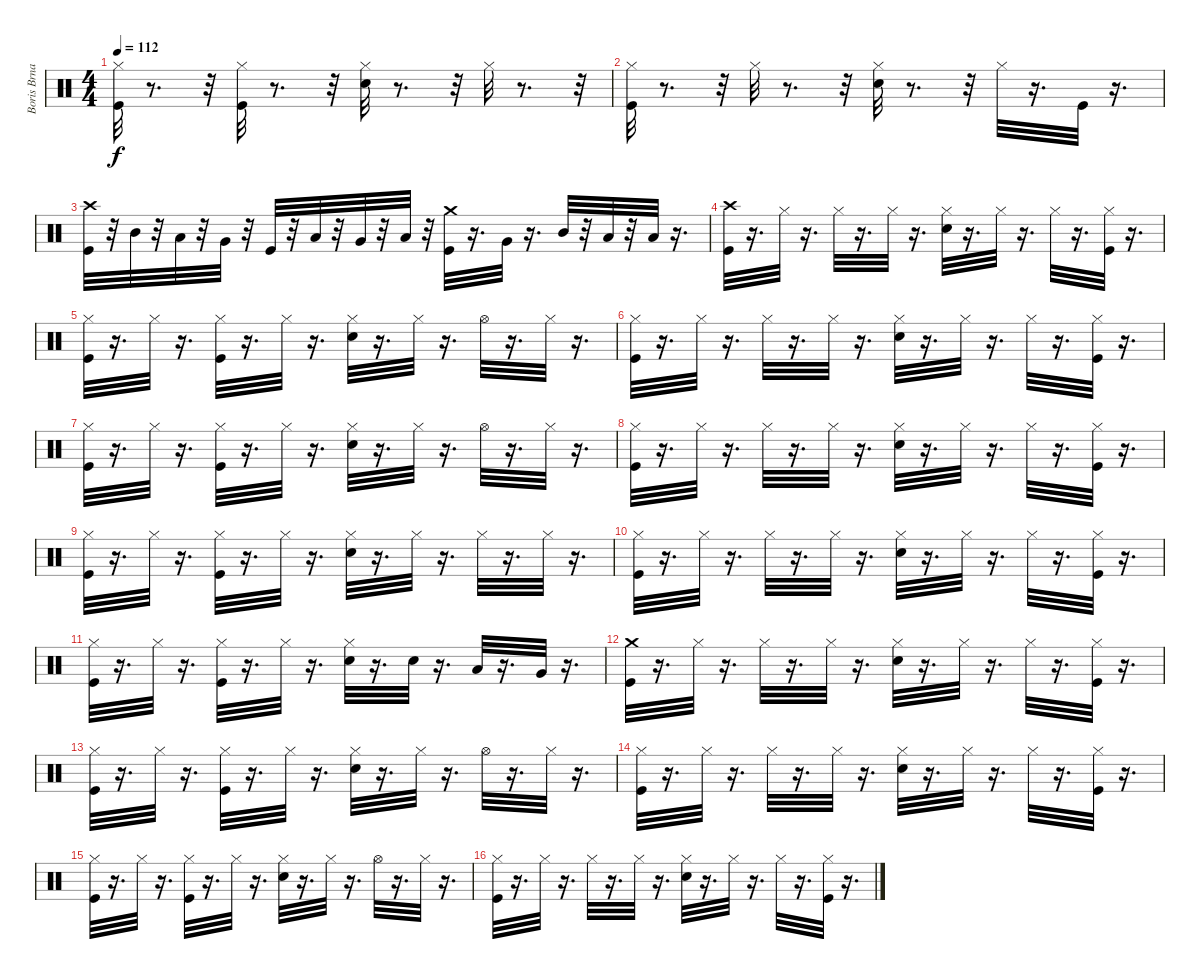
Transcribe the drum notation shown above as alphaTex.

\track ("Boris Brna (Drums)" "Boris Brna") {instrument percussion}
\staff {score}
\articulation defaults
\ts (4 4)
\tempo 112
\clef neutral
\ks c
("Kick (hit)" "Hi-Hat (closed)").32{dy f} r.8{d} r.32 ("Kick (hit)" "Hi-Hat (closed)").32 r.8{d} r.32 ("Snare (hit) 2" "Hi-Hat (closed)").32 r.8{d} r.32 "Hi-Hat (closed)".32 r.8{d} r.32 |
("Kick (hit)" "Hi-Hat (closed)").32 r.8{d} r.32 "Hi-Hat (closed)".32 r.8{d} r.32 ("Hi-Hat (closed)" "Snare (hit) 2").32 r.8{d} r.32 "Hi-Hat (closed)".32 r.16{d} "Kick (hit)".32 r.16{d} |
("Kick (hit)" "Crash high (hit)").32 r.32 "Mid Tom (hit)".32 r.32 "Low Tom (hit)".32 r.32 "Very Low Tom (hit)".32 r.32 "Kick (hit)".32 r.32 "Low Tom (hit)".32 r.32 "Very Low Tom (hit)".32 r.32 "Low Floor Tom (hit)".32 r.32 ("Kick (hit)" "Crash medium (hit)").32 r.16{d} "Very Low Tom (hit)".32 r.16{d} "Mid Tom (hit)".32 r.32 "Low Tom (hit)".32 r.32 "Low Floor Tom (hit)".32 r.16{d} |
("Kick (hit)" "Crash high (hit)").32 r.16{d} "Hi-Hat (closed)".32 r.16{d} "Hi-Hat (closed)".32 r.16{d} "Hi-Hat (closed)".32 r.16{d} ("Hi-Hat (closed)" "Snare (hit) 2").32 r.16{d} "Hi-Hat (closed)".32 r.16{d} "Hi-Hat (closed)".32 r.16{d} ("Kick (hit)" "Hi-Hat (closed)").32 r.16{d} |
("Kick (hit)" "Hi-Hat (closed)").32 r.16{d} "Hi-Hat (closed)".32 r.16{d} ("Kick (hit)" "Hi-Hat (closed)").32 r.16{d} "Hi-Hat (closed)".32 r.16{d} ("Snare (hit) 2" "Hi-Hat (closed)").32 r.16{d} "Hi-Hat (closed)".32 r.16{d} "Hi-Hat (open)".32 r.16{d} "Hi-Hat (closed)".32 r.16{d} |
("Kick (hit)" "Hi-Hat (closed)").32 r.16{d} "Hi-Hat (closed)".32 r.16{d} "Hi-Hat (closed)".32 r.16{d} "Hi-Hat (closed)".32 r.16{d} ("Hi-Hat (closed)" "Snare (hit) 2").32 r.16{d} "Hi-Hat (closed)".32 r.16{d} "Hi-Hat (closed)".32 r.16{d} ("Kick (hit)" "Hi-Hat (closed)").32 r.16{d} |
("Kick (hit)" "Hi-Hat (closed)").32 r.16{d} "Hi-Hat (closed)".32 r.16{d} ("Kick (hit)" "Hi-Hat (closed)").32 r.16{d} "Hi-Hat (closed)".32 r.16{d} ("Snare (hit) 2" "Hi-Hat (closed)").32 r.16{d} "Hi-Hat (closed)".32 r.16{d} "Hi-Hat (open)".32 r.16{d} "Hi-Hat (closed)".32 r.16{d} |
("Kick (hit)" "Hi-Hat (closed)").32 r.16{d} "Hi-Hat (closed)".32 r.16{d} "Hi-Hat (closed)".32 r.16{d} "Hi-Hat (closed)".32 r.16{d} ("Hi-Hat (closed)" "Snare (hit) 2").32 r.16{d} "Hi-Hat (closed)".32 r.16{d} "Hi-Hat (closed)".32 r.16{d} ("Kick (hit)" "Hi-Hat (closed)").32 r.16{d} |
("Kick (hit)" "Hi-Hat (closed)").32 r.16{d} "Hi-Hat (closed)".32 r.16{d} ("Kick (hit)" "Hi-Hat (closed)").32 r.16{d} "Hi-Hat (closed)".32 r.16{d} ("Snare (hit) 2" "Hi-Hat (closed)").32 r.16{d} "Hi-Hat (closed)".32 r.16{d} "Hi-Hat (closed)".32 r.16{d} "Hi-Hat (closed)".32 r.16{d} |
("Kick (hit)" "Hi-Hat (closed)").32 r.16{d} "Hi-Hat (closed)".32 r.16{d} "Hi-Hat (closed)".32 r.16{d} "Hi-Hat (closed)".32 r.16{d} ("Hi-Hat (closed)" "Snare (hit) 2").32 r.16{d} "Hi-Hat (closed)".32 r.16{d} "Hi-Hat (closed)".32 r.16{d} ("Kick (hit)" "Hi-Hat (closed)").32 r.16{d} |
("Kick (hit)" "Hi-Hat (closed)").32 r.16{d} "Hi-Hat (closed)".32 r.16{d} ("Kick (hit)" "Hi-Hat (closed)").32 r.16{d} "Hi-Hat (closed)".32 r.16{d} ("Snare (hit) 2" "Hi-Hat (closed)").32 r.16{d} "Snare (hit) 2".32 r.16{d} "Low Tom (hit)".32 r.16{d} "Very Low Tom (hit)".32 r.16{d} |
("Kick (hit)" "Crash medium (hit)").32 r.16{d} "Hi-Hat (closed)".32 r.16{d} "Hi-Hat (closed)".32 r.16{d} "Hi-Hat (closed)".32 r.16{d} ("Hi-Hat (closed)" "Snare (hit) 2").32 r.16{d} "Hi-Hat (closed)".32 r.16{d} "Hi-Hat (closed)".32 r.16{d} ("Kick (hit)" "Hi-Hat (closed)").32 r.16{d} |
("Kick (hit)" "Hi-Hat (closed)").32 r.16{d} "Hi-Hat (closed)".32 r.16{d} ("Kick (hit)" "Hi-Hat (closed)").32 r.16{d} "Hi-Hat (closed)".32 r.16{d} ("Snare (hit) 2" "Hi-Hat (closed)").32 r.16{d} "Hi-Hat (closed)".32 r.16{d} "Hi-Hat (open)".32 r.16{d} "Hi-Hat (closed)".32 r.16{d} |
("Kick (hit)" "Hi-Hat (closed)").32 r.16{d} "Hi-Hat (closed)".32 r.16{d} "Hi-Hat (closed)".32 r.16{d} "Hi-Hat (closed)".32 r.16{d} ("Hi-Hat (closed)" "Snare (hit) 2").32 r.16{d} "Hi-Hat (closed)".32 r.16{d} "Hi-Hat (closed)".32 r.16{d} ("Kick (hit)" "Hi-Hat (closed)").32 r.16{d} |
("Kick (hit)" "Hi-Hat (closed)").32 r.16{d} "Hi-Hat (closed)".32 r.16{d} ("Kick (hit)" "Hi-Hat (closed)").32 r.16{d} "Hi-Hat (closed)".32 r.16{d} ("Snare (hit) 2" "Hi-Hat (closed)").32 r.16{d} "Hi-Hat (closed)".32 r.16{d} "Hi-Hat (open)".32 r.16{d} "Hi-Hat (closed)".32 r.16{d} |
("Kick (hit)" "Hi-Hat (closed)").32 r.16{d} "Hi-Hat (closed)".32 r.16{d} "Hi-Hat (closed)".32 r.16{d} "Hi-Hat (closed)".32 r.16{d} ("Hi-Hat (closed)" "Snare (hit) 2").32 r.16{d} "Hi-Hat (closed)".32 r.16{d} "Hi-Hat (closed)".32 r.16{d} ("Kick (hit)" "Hi-Hat (closed)").32 r.16{d}
